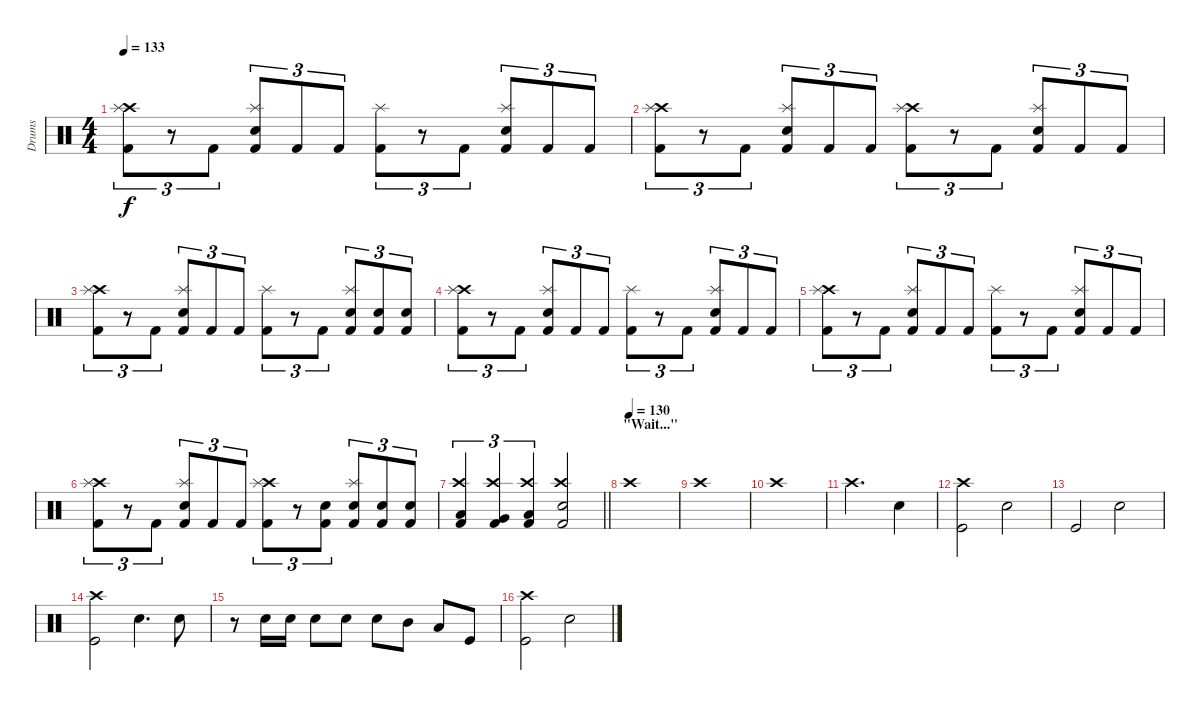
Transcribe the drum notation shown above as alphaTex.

\track ("Drums" "Drums") {instrument percussion}
\staff {score}
\articulation defaults
\ts (4 4)
\tempo 133
\clef neutral
\ks c
("Kick (hit) 2" "Crash high (hit)" "Splash (hit)").8{tu (3 2) dy f} r.8{tu (3 2)} "Kick (hit) 2".8{tu (3 2)} ("Kick (hit) 2" "Electric Snare (hit)" "Splash (hit)").8{tu (3 2)} "Kick (hit) 2".8{tu (3 2)} "Kick (hit) 2".8{tu (3 2)} ("Kick (hit) 2" "Splash (hit)").8{tu (3 2)} r.8{tu (3 2)} "Kick (hit) 2".8{tu (3 2)} ("Kick (hit) 2" "Electric Snare (hit)" "Splash (hit)").8{tu (3 2)} "Kick (hit) 2".8{tu (3 2)} "Kick (hit) 2".8{tu (3 2)} |
("Kick (hit) 2" "Crash high (hit)" "Splash (hit)").8{tu (3 2)} r.8{tu (3 2)} "Kick (hit) 2".8{tu (3 2)} ("Kick (hit) 2" "Electric Snare (hit)" "Splash (hit)").8{tu (3 2)} "Kick (hit) 2".8{tu (3 2)} "Kick (hit) 2".8{tu (3 2)} ("Kick (hit) 2" "Crash high (hit)" "Splash (hit)").8{tu (3 2)} r.8{tu (3 2)} "Kick (hit) 2".8{tu (3 2)} ("Kick (hit) 2" "Electric Snare (hit)" "Splash (hit)").8{tu (3 2)} "Kick (hit) 2".8{tu (3 2)} "Kick (hit) 2".8{tu (3 2)} |
("Kick (hit) 2" "Crash high (hit)" "Splash (hit)").8{tu (3 2)} r.8{tu (3 2)} "Kick (hit) 2".8{tu (3 2)} ("Kick (hit) 2" "Electric Snare (hit)" "Splash (hit)").8{tu (3 2)} "Kick (hit) 2".8{tu (3 2)} "Kick (hit) 2".8{tu (3 2)} ("Kick (hit) 2" "Splash (hit)").8{tu (3 2)} r.8{tu (3 2)} "Kick (hit) 2".8{tu (3 2)} ("Kick (hit) 2" "Electric Snare (hit)" "Splash (hit)").8{tu (3 2)} ("Kick (hit) 2" "Electric Snare (hit)").8{tu (3 2)} ("Kick (hit) 2" "Electric Snare (hit)").8{tu (3 2)} |
("Kick (hit) 2" "Crash high (hit)" "Splash (hit)").8{tu (3 2)} r.8{tu (3 2)} "Kick (hit) 2".8{tu (3 2)} ("Kick (hit) 2" "Electric Snare (hit)" "Splash (hit)").8{tu (3 2)} "Kick (hit) 2".8{tu (3 2)} "Kick (hit) 2".8{tu (3 2)} ("Kick (hit) 2" "Splash (hit)").8{tu (3 2)} r.8{tu (3 2)} "Kick (hit) 2".8{tu (3 2)} ("Kick (hit) 2" "Electric Snare (hit)" "Splash (hit)").8{tu (3 2)} "Kick (hit) 2".8{tu (3 2)} "Kick (hit) 2".8{tu (3 2)} |
("Kick (hit) 2" "Crash high (hit)" "Splash (hit)").8{tu (3 2)} r.8{tu (3 2)} "Kick (hit) 2".8{tu (3 2)} ("Kick (hit) 2" "Electric Snare (hit)" "Splash (hit)").8{tu (3 2)} "Kick (hit) 2".8{tu (3 2)} "Kick (hit) 2".8{tu (3 2)} ("Kick (hit) 2" "Splash (hit)").8{tu (3 2)} r.8{tu (3 2)} "Kick (hit) 2".8{tu (3 2)} ("Kick (hit) 2" "Electric Snare (hit)" "Splash (hit)").8{tu (3 2)} "Kick (hit) 2".8{tu (3 2)} "Kick (hit) 2".8{tu (3 2)} |
("Kick (hit) 2" "Crash high (hit)" "Splash (hit)").8{tu (3 2)} r.8{tu (3 2)} "Kick (hit) 2".8{tu (3 2)} ("Kick (hit) 2" "Electric Snare (hit)" "Splash (hit)").8{tu (3 2)} "Kick (hit) 2".8{tu (3 2)} "Kick (hit) 2".8{tu (3 2)} ("Kick (hit) 2" "Crash high (hit)" "Splash (hit)").8{tu (3 2)} r.8{tu (3 2)} ("Kick (hit) 2" "Electric Snare (hit)").8{tu (3 2)} ("Kick (hit) 2" "Electric Snare (hit)" "Splash (hit)").8{tu (3 2)} ("Kick (hit) 2" "Electric Snare (hit)").8{tu (3 2)} ("Kick (hit) 2" "Electric Snare (hit)").8{tu (3 2)} |
\barLineRight lightlight
("Kick (hit) 2" "Low Tom (hit)" "Crash high (hit)").4{tu (3 2)} ("Kick (hit) 2" "Very Low Tom (hit)" "Crash high (hit)").4{tu (3 2)} ("Kick (hit) 2" "Low Floor Tom (hit)" "Crash high (hit)").4{tu (3 2)} ("Kick (hit) 2" "Electric Snare (hit)" "Crash high (hit)").2 |
\section ("" "\"Wait...\"")
\tempo (130)
"Crash high (hit)".1 |
"Crash high (hit)".1 |
"Crash high (hit)".1 |
"Crash high (hit)".2{d} "Electric Snare (hit)".4 |
("Crash high (hit)" "Kick (hit)").2 "Electric Snare (hit)".2 |
"Kick (hit)".2 "Electric Snare (hit)".2 |
("Crash high (hit)" "Kick (hit)").2 "Electric Snare (hit)".4{d} "Electric Snare (hit)".8 |
r.8 "Snare (hit) 2".16 "Snare (hit) 2".16 "Snare (hit) 2".8 "Snare (hit) 2".8 "Snare (hit) 2".8 "Mid Tom (hit)".8 "Low Tom (hit)".8 "Kick (hit)".8 |
("Crash high (hit)" "Kick (hit)").2 "Electric Snare (hit)".2
